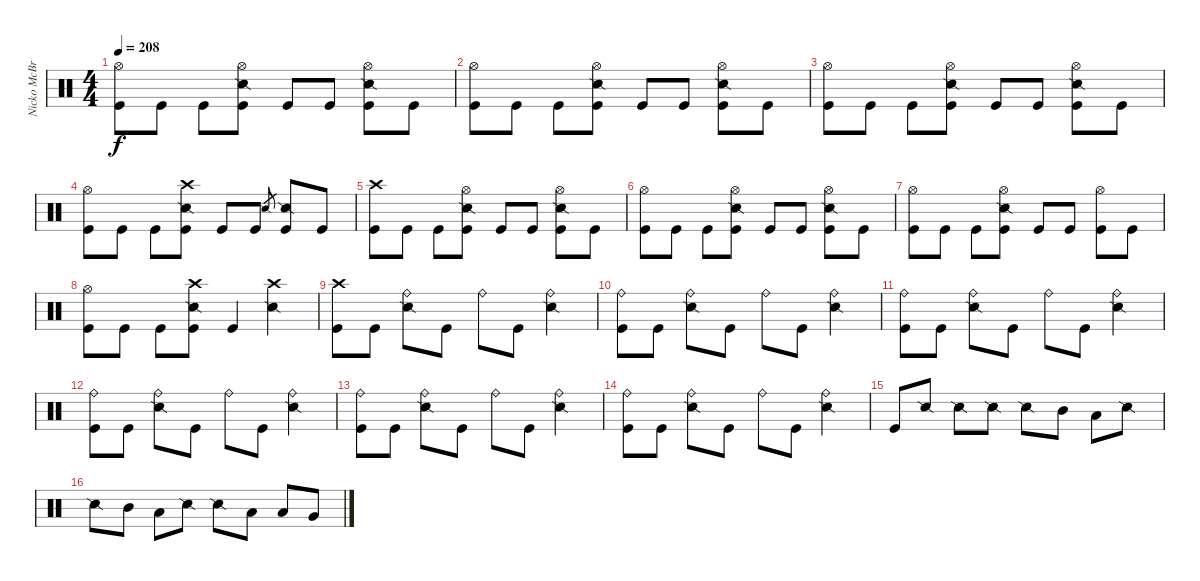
\track ("Nicko McBrain" "Nicko McBr") {instrument percussion}
\staff {score}
\articulation defaults
\ts (4 4)
\tempo 208
\clef neutral
\ks c
("Hi-Hat (open)" "Kick (hit)").8{dy f} "Kick (hit)".8 "Kick (hit)".8 ("Hi-Hat (open)" "Snare (side stick) 2" "Kick (hit)").8 "Kick (hit)".8 "Kick (hit)".8 ("Hi-Hat (open)" "Snare (side stick) 2" "Kick (hit)").8 "Kick (hit)".8 |
("Hi-Hat (open)" "Kick (hit)").8 "Kick (hit)".8 "Kick (hit)".8 ("Hi-Hat (open)" "Snare (side stick) 2" "Kick (hit)").8 "Kick (hit)".8 "Kick (hit)".8 ("Hi-Hat (open)" "Snare (side stick) 2" "Kick (hit)").8 "Kick (hit)".8 |
("Hi-Hat (open)" "Kick (hit)").8 "Kick (hit)".8 "Kick (hit)".8 ("Hi-Hat (open)" "Snare (side stick) 2" "Kick (hit)").8 "Kick (hit)".8 "Kick (hit)".8 ("Hi-Hat (open)" "Snare (side stick) 2" "Kick (hit)").8 "Kick (hit)".8 |
("Hi-Hat (open)" "Kick (hit)").8 "Kick (hit)".8 "Kick (hit)".8 ("Crash high (hit)" "Snare (side stick) 2" "Kick (hit)").8 "Kick (hit)".8 "Kick (hit)".8 "Snare (side stick) 2".8{gr} ("Snare (side stick) 2" "Kick (hit)").8 "Kick (hit)".8 |
("Crash high (hit)" "Kick (hit)").8 "Kick (hit)".8 "Kick (hit)".8 ("Hi-Hat (open)" "Snare (side stick) 2" "Kick (hit)").8 "Kick (hit)".8 "Kick (hit)".8 ("Hi-Hat (open)" "Snare (side stick) 2" "Kick (hit)").8 "Kick (hit)".8 |
("Hi-Hat (open)" "Kick (hit)").8 "Kick (hit)".8 "Kick (hit)".8 ("Hi-Hat (open)" "Snare (side stick) 2" "Kick (hit)").8 "Kick (hit)".8 "Kick (hit)".8 ("Hi-Hat (open)" "Snare (side stick) 2" "Kick (hit)").8 "Kick (hit)".8 |
("Hi-Hat (open)" "Kick (hit)").8 "Kick (hit)".8 "Kick (hit)".8 ("Hi-Hat (open)" "Snare (side stick) 2" "Kick (hit)").8 "Kick (hit)".8 "Kick (hit)".8 ("Hi-Hat (open)" "Kick (hit)").8 "Kick (hit)".8 |
("Hi-Hat (open)" "Kick (hit)").8 "Kick (hit)".8 "Kick (hit)".8 ("Crash high (hit)" "Snare (side stick) 2" "Kick (hit)").8 "Kick (hit)".4 ("Crash high (hit)" "Snare (side stick) 2").4 |
("Crash high (hit)" "Kick (hit)").8 "Kick (hit)".8 ("Ride (bell)" "Snare (side stick) 2").8 "Kick (hit)".8 "Ride (bell)".8 "Kick (hit)".8 ("Ride (bell)" "Snare (side stick) 2").4 |
("Ride (bell)" "Kick (hit)").8 "Kick (hit)".8 ("Ride (bell)" "Snare (side stick) 2").8 "Kick (hit)".8 "Ride (bell)".8 "Kick (hit)".8 ("Ride (bell)" "Snare (side stick) 2").4 |
("Ride (bell)" "Kick (hit)").8 "Kick (hit)".8 ("Ride (bell)" "Snare (side stick) 2").8 "Kick (hit)".8 "Ride (bell)".8 "Kick (hit)".8 ("Ride (bell)" "Snare (side stick) 2").4 |
("Ride (bell)" "Kick (hit)").8 "Kick (hit)".8 ("Ride (bell)" "Snare (side stick) 2").8 "Kick (hit)".8 "Ride (bell)".8 "Kick (hit)".8 ("Ride (bell)" "Snare (side stick) 2").4 |
("Ride (bell)" "Kick (hit)").8 "Kick (hit)".8 ("Ride (bell)" "Snare (side stick) 2").8 "Kick (hit)".8 "Ride (bell)".8 "Kick (hit)".8 ("Ride (bell)" "Snare (side stick) 2").4 |
("Ride (bell)" "Kick (hit)").8 "Kick (hit)".8 ("Ride (bell)" "Snare (side stick) 2").8 "Kick (hit)".8 "Ride (bell)".8 "Kick (hit)".8 ("Ride (bell)" "Snare (side stick) 2").4 |
"Kick (hit)".8 "Snare (side stick) 2".8 "Snare (side stick) 2".8 "Snare (side stick) 2".8 "Snare (side stick) 2".8 "Mid Tom (hit)".8 "Low Tom (hit)".8 "Snare (side stick) 2".8 |
"Snare (side stick) 2".8 "Mid Tom (hit)".8 "Low Tom (hit)".8 "Snare (side stick) 2".8 "Snare (side stick) 2".8 "Low Tom (hit)".8 "Low Tom (hit)".8 "Very Low Tom (hit)".8
